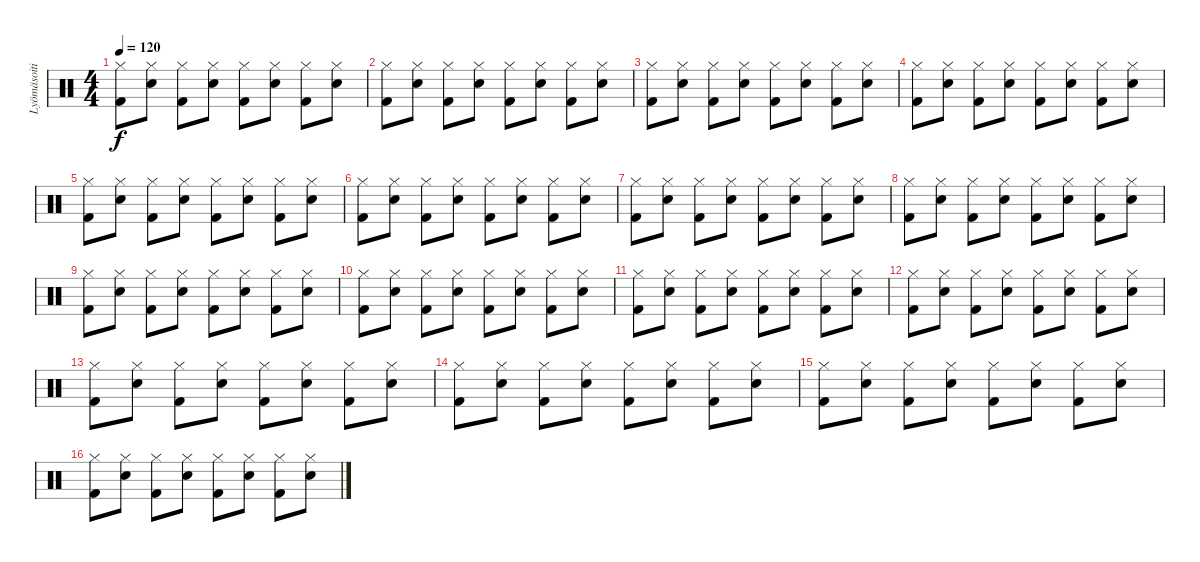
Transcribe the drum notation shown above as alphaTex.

\track ("Lyömäsoitin" "Lyömäsoiti") {instrument percussion}
\staff {score}
\articulation defaults
\ts (4 4)
\tempo 120
\clef neutral
\ks c
("Hi-Hat (closed)" "Kick (hit) 2").8{dy f} ("Hi-Hat (closed)" "Snare (hit) 2").8 ("Hi-Hat (closed)" "Kick (hit) 2").8 ("Hi-Hat (closed)" "Snare (hit) 2").8 ("Hi-Hat (closed)" "Kick (hit) 2").8 ("Hi-Hat (closed)" "Snare (hit) 2").8 ("Hi-Hat (closed)" "Kick (hit) 2").8 ("Hi-Hat (closed)" "Snare (hit) 2").8 |
("Hi-Hat (closed)" "Kick (hit) 2").8 ("Hi-Hat (closed)" "Snare (hit) 2").8 ("Hi-Hat (closed)" "Kick (hit) 2").8 ("Hi-Hat (closed)" "Snare (hit) 2").8 ("Hi-Hat (closed)" "Kick (hit) 2").8 ("Hi-Hat (closed)" "Snare (hit) 2").8 ("Hi-Hat (closed)" "Kick (hit) 2").8 ("Hi-Hat (closed)" "Snare (hit) 2").8 |
("Hi-Hat (closed)" "Kick (hit) 2").8 ("Hi-Hat (closed)" "Snare (hit) 2").8 ("Hi-Hat (closed)" "Kick (hit) 2").8 ("Hi-Hat (closed)" "Snare (hit) 2").8 ("Hi-Hat (closed)" "Kick (hit) 2").8 ("Hi-Hat (closed)" "Snare (hit) 2").8 ("Hi-Hat (closed)" "Kick (hit) 2").8 ("Hi-Hat (closed)" "Snare (hit) 2").8 |
("Hi-Hat (closed)" "Kick (hit) 2").8 ("Hi-Hat (closed)" "Snare (hit) 2").8 ("Hi-Hat (closed)" "Kick (hit) 2").8 ("Hi-Hat (closed)" "Snare (hit) 2").8 ("Hi-Hat (closed)" "Kick (hit) 2").8 ("Hi-Hat (closed)" "Snare (hit) 2").8 ("Hi-Hat (closed)" "Kick (hit) 2").8 ("Hi-Hat (closed)" "Snare (hit) 2").8 |
("Hi-Hat (closed)" "Kick (hit) 2").8 ("Hi-Hat (closed)" "Snare (hit) 2").8 ("Hi-Hat (closed)" "Kick (hit) 2").8 ("Hi-Hat (closed)" "Snare (hit) 2").8 ("Hi-Hat (closed)" "Kick (hit) 2").8 ("Hi-Hat (closed)" "Snare (hit) 2").8 ("Hi-Hat (closed)" "Kick (hit) 2").8 ("Hi-Hat (closed)" "Snare (hit) 2").8 |
("Hi-Hat (closed)" "Kick (hit) 2").8 ("Hi-Hat (closed)" "Snare (hit) 2").8 ("Hi-Hat (closed)" "Kick (hit) 2").8 ("Hi-Hat (closed)" "Snare (hit) 2").8 ("Hi-Hat (closed)" "Kick (hit) 2").8 ("Hi-Hat (closed)" "Snare (hit) 2").8 ("Hi-Hat (closed)" "Kick (hit) 2").8 ("Hi-Hat (closed)" "Snare (hit) 2").8 |
("Hi-Hat (closed)" "Kick (hit) 2").8 ("Hi-Hat (closed)" "Snare (hit) 2").8 ("Hi-Hat (closed)" "Kick (hit) 2").8 ("Hi-Hat (closed)" "Snare (hit) 2").8 ("Hi-Hat (closed)" "Kick (hit) 2").8 ("Hi-Hat (closed)" "Snare (hit) 2").8 ("Hi-Hat (closed)" "Kick (hit) 2").8 ("Hi-Hat (closed)" "Snare (hit) 2").8 |
("Hi-Hat (closed)" "Kick (hit) 2").8 ("Hi-Hat (closed)" "Snare (hit) 2").8 ("Hi-Hat (closed)" "Kick (hit) 2").8 ("Hi-Hat (closed)" "Snare (hit) 2").8 ("Hi-Hat (closed)" "Kick (hit) 2").8 ("Hi-Hat (closed)" "Snare (hit) 2").8 ("Hi-Hat (closed)" "Kick (hit) 2").8 ("Hi-Hat (closed)" "Snare (hit) 2").8 |
("Hi-Hat (closed)" "Kick (hit) 2").8 ("Hi-Hat (closed)" "Snare (hit) 2").8 ("Hi-Hat (closed)" "Kick (hit) 2").8 ("Hi-Hat (closed)" "Snare (hit) 2").8 ("Hi-Hat (closed)" "Kick (hit) 2").8 ("Hi-Hat (closed)" "Snare (hit) 2").8 ("Hi-Hat (closed)" "Kick (hit) 2").8 ("Hi-Hat (closed)" "Snare (hit) 2").8 |
("Hi-Hat (closed)" "Kick (hit) 2").8 ("Hi-Hat (closed)" "Snare (hit) 2").8 ("Hi-Hat (closed)" "Kick (hit) 2").8 ("Hi-Hat (closed)" "Snare (hit) 2").8 ("Hi-Hat (closed)" "Kick (hit) 2").8 ("Hi-Hat (closed)" "Snare (hit) 2").8 ("Hi-Hat (closed)" "Kick (hit) 2").8 ("Hi-Hat (closed)" "Snare (hit) 2").8 |
("Hi-Hat (closed)" "Kick (hit) 2").8 ("Hi-Hat (closed)" "Snare (hit) 2").8 ("Hi-Hat (closed)" "Kick (hit) 2").8 ("Hi-Hat (closed)" "Snare (hit) 2").8 ("Hi-Hat (closed)" "Kick (hit) 2").8 ("Hi-Hat (closed)" "Snare (hit) 2").8 ("Hi-Hat (closed)" "Kick (hit) 2").8 ("Hi-Hat (closed)" "Snare (hit) 2").8 |
("Hi-Hat (closed)" "Kick (hit) 2").8 ("Hi-Hat (closed)" "Snare (hit) 2").8 ("Hi-Hat (closed)" "Kick (hit) 2").8 ("Hi-Hat (closed)" "Snare (hit) 2").8 ("Hi-Hat (closed)" "Kick (hit) 2").8 ("Hi-Hat (closed)" "Snare (hit) 2").8 ("Hi-Hat (closed)" "Kick (hit) 2").8 ("Hi-Hat (closed)" "Snare (hit) 2").8 |
("Hi-Hat (closed)" "Kick (hit) 2").8 ("Hi-Hat (closed)" "Snare (hit) 2").8 ("Hi-Hat (closed)" "Kick (hit) 2").8 ("Hi-Hat (closed)" "Snare (hit) 2").8 ("Hi-Hat (closed)" "Kick (hit) 2").8 ("Hi-Hat (closed)" "Snare (hit) 2").8 ("Hi-Hat (closed)" "Kick (hit) 2").8 ("Hi-Hat (closed)" "Snare (hit) 2").8 |
("Hi-Hat (closed)" "Kick (hit) 2").8 ("Hi-Hat (closed)" "Snare (hit) 2").8 ("Hi-Hat (closed)" "Kick (hit) 2").8 ("Hi-Hat (closed)" "Snare (hit) 2").8 ("Hi-Hat (closed)" "Kick (hit) 2").8 ("Hi-Hat (closed)" "Snare (hit) 2").8 ("Hi-Hat (closed)" "Kick (hit) 2").8 ("Hi-Hat (closed)" "Snare (hit) 2").8 |
("Hi-Hat (closed)" "Kick (hit) 2").8 ("Hi-Hat (closed)" "Snare (hit) 2").8 ("Hi-Hat (closed)" "Kick (hit) 2").8 ("Hi-Hat (closed)" "Snare (hit) 2").8 ("Hi-Hat (closed)" "Kick (hit) 2").8 ("Hi-Hat (closed)" "Snare (hit) 2").8 ("Hi-Hat (closed)" "Kick (hit) 2").8 ("Hi-Hat (closed)" "Snare (hit) 2").8 |
("Hi-Hat (closed)" "Kick (hit) 2").8 ("Hi-Hat (closed)" "Snare (hit) 2").8 ("Hi-Hat (closed)" "Kick (hit) 2").8 ("Hi-Hat (closed)" "Snare (hit) 2").8 ("Hi-Hat (closed)" "Kick (hit) 2").8 ("Hi-Hat (closed)" "Snare (hit) 2").8 ("Hi-Hat (closed)" "Kick (hit) 2").8 ("Hi-Hat (closed)" "Snare (hit) 2").8
